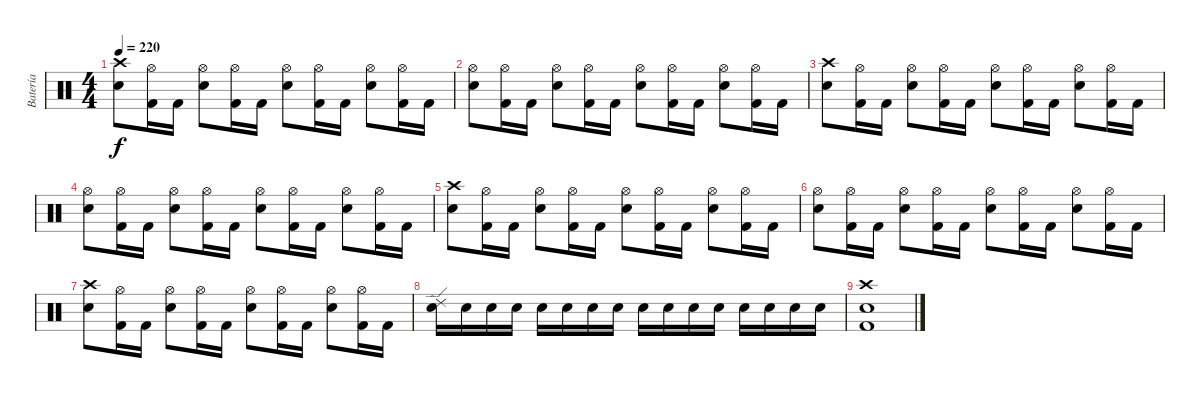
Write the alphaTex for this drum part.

\track ("Batería" "Batería") {instrument percussion}
\staff {score}
\articulation defaults
\ts (4 4)
\tempo 220
\clef neutral
\ks c
("Crash high (hit)" "Snare (hit) 2").8{dy f} ("Hi-Hat (open)" "Kick (hit) 2").16 "Kick (hit) 2".16 ("Hi-Hat (open)" "Snare (hit) 2").8 ("Hi-Hat (open)" "Kick (hit) 2").16 "Kick (hit) 2".16 ("Hi-Hat (open)" "Snare (hit) 2").8 ("Hi-Hat (open)" "Kick (hit) 2").16 "Kick (hit) 2".16 ("Hi-Hat (open)" "Snare (hit) 2").8 ("Hi-Hat (open)" "Kick (hit) 2").16 "Kick (hit) 2".16 |
("Hi-Hat (open)" "Snare (hit) 2").8 ("Hi-Hat (open)" "Kick (hit) 2").16 "Kick (hit) 2".16 ("Hi-Hat (open)" "Snare (hit) 2").8 ("Hi-Hat (open)" "Kick (hit) 2").16 "Kick (hit) 2".16 ("Hi-Hat (open)" "Snare (hit) 2").8 ("Hi-Hat (open)" "Kick (hit) 2").16 "Kick (hit) 2".16 ("Hi-Hat (open)" "Snare (hit) 2").8 ("Hi-Hat (open)" "Kick (hit) 2").16 "Kick (hit) 2".16 |
("Crash high (hit)" "Snare (hit) 2").8 ("Hi-Hat (open)" "Kick (hit) 2").16 "Kick (hit) 2".16 ("Hi-Hat (open)" "Snare (hit) 2").8 ("Hi-Hat (open)" "Kick (hit) 2").16 "Kick (hit) 2".16 ("Hi-Hat (open)" "Snare (hit) 2").8 ("Hi-Hat (open)" "Kick (hit) 2").16 "Kick (hit) 2".16 ("Hi-Hat (open)" "Snare (hit) 2").8 ("Hi-Hat (open)" "Kick (hit) 2").16 "Kick (hit) 2".16 |
("Hi-Hat (open)" "Snare (hit) 2").8 ("Hi-Hat (open)" "Kick (hit) 2").16 "Kick (hit) 2".16 ("Hi-Hat (open)" "Snare (hit) 2").8 ("Hi-Hat (open)" "Kick (hit) 2").16 "Kick (hit) 2".16 ("Hi-Hat (open)" "Snare (hit) 2").8 ("Hi-Hat (open)" "Kick (hit) 2").16 "Kick (hit) 2".16 ("Hi-Hat (open)" "Snare (hit) 2").8 ("Hi-Hat (open)" "Kick (hit) 2").16 "Kick (hit) 2".16 |
("Crash high (hit)" "Snare (hit) 2").8 ("Hi-Hat (open)" "Kick (hit) 2").16 "Kick (hit) 2".16 ("Hi-Hat (open)" "Snare (hit) 2").8 ("Hi-Hat (open)" "Kick (hit) 2").16 "Kick (hit) 2".16 ("Hi-Hat (open)" "Snare (hit) 2").8 ("Hi-Hat (open)" "Kick (hit) 2").16 "Kick (hit) 2".16 ("Hi-Hat (open)" "Snare (hit) 2").8 ("Hi-Hat (open)" "Kick (hit) 2").16 "Kick (hit) 2".16 |
("Hi-Hat (open)" "Snare (hit) 2").8 ("Hi-Hat (open)" "Kick (hit) 2").16 "Kick (hit) 2".16 ("Hi-Hat (open)" "Snare (hit) 2").8 ("Hi-Hat (open)" "Kick (hit) 2").16 "Kick (hit) 2".16 ("Hi-Hat (open)" "Snare (hit) 2").8 ("Hi-Hat (open)" "Kick (hit) 2").16 "Kick (hit) 2".16 ("Hi-Hat (open)" "Snare (hit) 2").8 ("Hi-Hat (open)" "Kick (hit) 2").16 "Kick (hit) 2".16 |
("Crash high (hit)" "Snare (hit) 2").8 ("Hi-Hat (open)" "Kick (hit) 2").16 "Kick (hit) 2".16 ("Hi-Hat (open)" "Snare (hit) 2").8 ("Hi-Hat (open)" "Kick (hit) 2").16 "Kick (hit) 2".16 ("Hi-Hat (open)" "Snare (hit) 2").8 ("Hi-Hat (open)" "Kick (hit) 2").16 "Kick (hit) 2".16 ("Hi-Hat (open)" "Snare (hit) 2").8 ("Hi-Hat (open)" "Kick (hit) 2").16 "Kick (hit) 2".16 |
("Ride (edge) 2" "Snare (hit) 2").16 "Snare (hit) 2".16 "Snare (hit) 2".16 "Snare (hit) 2".16 "Snare (hit) 2".16 "Snare (hit) 2".16 "Snare (hit) 2".16 "Snare (hit) 2".16 "Snare (hit) 2".16 "Snare (hit) 2".16 "Snare (hit) 2".16 "Snare (hit) 2".16 "Snare (hit) 2".16 "Snare (hit) 2".16 "Snare (hit) 2".16 "Snare (hit) 2".16 |
("Crash high (hit)" "Snare (hit) 2" "Kick (hit) 2").1
